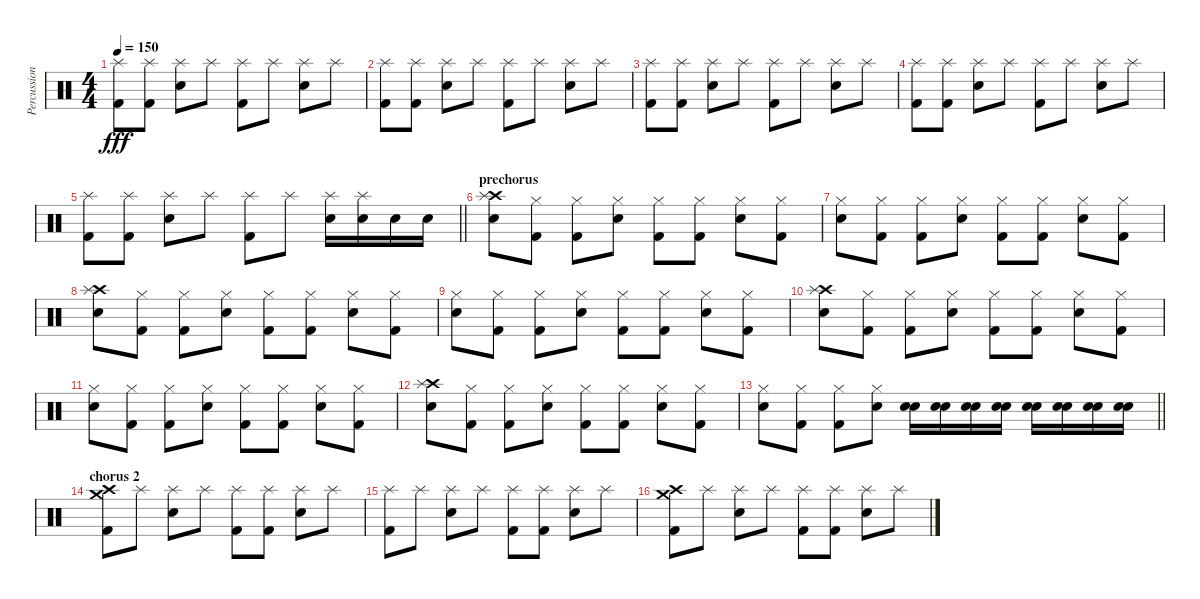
\track ("Percussion" "Percussion") {instrument percussion}
\staff {score}
\articulation defaults
\ts (4 4)
\tempo 150
\clef neutral
\ks c
("Splash (hit)" "Kick (hit) 2").8{dy fff} ("Splash (hit)" "Kick (hit) 2").8 ("Splash (hit)" "Electric Snare (hit)").8 "Splash (hit)".8 ("Splash (hit)" "Kick (hit) 2").8 "Splash (hit)".8 ("Splash (hit)" "Electric Snare (hit)").8 "Splash (hit)".8 |
("Splash (hit)" "Kick (hit) 2").8 ("Splash (hit)" "Kick (hit) 2").8 ("Splash (hit)" "Electric Snare (hit)").8 "Splash (hit)".8 ("Splash (hit)" "Kick (hit) 2").8 "Splash (hit)".8 ("Splash (hit)" "Electric Snare (hit)").8 "Splash (hit)".8 |
("Splash (hit)" "Kick (hit) 2").8 ("Splash (hit)" "Kick (hit) 2").8 ("Splash (hit)" "Electric Snare (hit)").8 "Splash (hit)".8 ("Splash (hit)" "Kick (hit) 2").8 "Splash (hit)".8 ("Splash (hit)" "Electric Snare (hit)").8 "Splash (hit)".8 |
("Splash (hit)" "Kick (hit) 2").8 ("Splash (hit)" "Kick (hit) 2").8 ("Splash (hit)" "Electric Snare (hit)").8 "Splash (hit)".8 ("Splash (hit)" "Kick (hit) 2").8 "Splash (hit)".8 ("Splash (hit)" "Electric Snare (hit)").8 "Splash (hit)".8 |
\barLineRight lightlight
("Splash (hit)" "Kick (hit) 2").8 ("Splash (hit)" "Kick (hit) 2").8 ("Splash (hit)" "Electric Snare (hit)").8 "Splash (hit)".8 ("Splash (hit)" "Kick (hit) 2").8 "Splash (hit)".8 ("Splash (hit)" "Electric Snare (hit)").16 ("Splash (hit)" "Electric Snare (hit)").16 "Electric Snare (hit)".16 "Electric Snare (hit)".16 |
\section ("" "prechorus")
("Crash high (hit)" "Electric Snare (hit)" "Splash (hit)").8 ("Hi-Hat (closed)" "Kick (hit) 2").8 ("Hi-Hat (closed)" "Kick (hit) 2").8 ("Hi-Hat (closed)" "Electric Snare (hit)").8 ("Hi-Hat (closed)" "Kick (hit) 2").8 ("Hi-Hat (closed)" "Kick (hit) 2").8 ("Hi-Hat (closed)" "Electric Snare (hit)").8 ("Hi-Hat (closed)" "Kick (hit) 2").8 |
("Hi-Hat (closed)" "Electric Snare (hit)").8 ("Hi-Hat (closed)" "Kick (hit) 2").8 ("Hi-Hat (closed)" "Kick (hit) 2").8 ("Hi-Hat (closed)" "Electric Snare (hit)").8 ("Hi-Hat (closed)" "Kick (hit) 2").8 ("Hi-Hat (closed)" "Kick (hit) 2").8 ("Hi-Hat (closed)" "Electric Snare (hit)").8 ("Hi-Hat (closed)" "Kick (hit) 2").8 |
("Crash high (hit)" "Electric Snare (hit)" "Splash (hit)").8 ("Hi-Hat (closed)" "Kick (hit) 2").8 ("Hi-Hat (closed)" "Kick (hit) 2").8 ("Hi-Hat (closed)" "Electric Snare (hit)").8 ("Hi-Hat (closed)" "Kick (hit) 2").8 ("Hi-Hat (closed)" "Kick (hit) 2").8 ("Hi-Hat (closed)" "Electric Snare (hit)").8 ("Hi-Hat (closed)" "Kick (hit) 2").8 |
("Hi-Hat (closed)" "Electric Snare (hit)").8 ("Hi-Hat (closed)" "Kick (hit) 2").8 ("Hi-Hat (closed)" "Kick (hit) 2").8 ("Hi-Hat (closed)" "Electric Snare (hit)").8 ("Hi-Hat (closed)" "Kick (hit) 2").8 ("Hi-Hat (closed)" "Kick (hit) 2").8 ("Hi-Hat (closed)" "Electric Snare (hit)").8 ("Hi-Hat (closed)" "Kick (hit) 2").8 |
("Crash high (hit)" "Electric Snare (hit)" "Splash (hit)").8 ("Hi-Hat (closed)" "Kick (hit) 2").8 ("Hi-Hat (closed)" "Kick (hit) 2").8 ("Hi-Hat (closed)" "Electric Snare (hit)").8 ("Hi-Hat (closed)" "Kick (hit) 2").8 ("Hi-Hat (closed)" "Kick (hit) 2").8 ("Hi-Hat (closed)" "Electric Snare (hit)").8 ("Hi-Hat (closed)" "Kick (hit) 2").8 |
("Hi-Hat (closed)" "Electric Snare (hit)").8 ("Hi-Hat (closed)" "Kick (hit) 2").8 ("Hi-Hat (closed)" "Kick (hit) 2").8 ("Hi-Hat (closed)" "Electric Snare (hit)").8 ("Hi-Hat (closed)" "Kick (hit) 2").8 ("Hi-Hat (closed)" "Kick (hit) 2").8 ("Hi-Hat (closed)" "Electric Snare (hit)").8 ("Hi-Hat (closed)" "Kick (hit) 2").8 |
("Crash high (hit)" "Electric Snare (hit)" "Splash (hit)").8 ("Hi-Hat (closed)" "Kick (hit) 2").8 ("Hi-Hat (closed)" "Kick (hit) 2").8 ("Hi-Hat (closed)" "Electric Snare (hit)").8 ("Hi-Hat (closed)" "Kick (hit) 2").8 ("Hi-Hat (closed)" "Kick (hit) 2").8 ("Hi-Hat (closed)" "Electric Snare (hit)").8 ("Hi-Hat (closed)" "Kick (hit) 2").8 |
\barLineRight lightlight
("Hi-Hat (closed)" "Electric Snare (hit)").8 ("Hi-Hat (closed)" "Kick (hit) 2").8 ("Hi-Hat (closed)" "Kick (hit) 2").8 ("Hi-Hat (closed)" "Electric Snare (hit)").8 ("Electric Snare (hit)" "Electric Snare (hit)").16 ("Electric Snare (hit)" "Electric Snare (hit)").16 ("Electric Snare (hit)" "Electric Snare (hit)").16 ("Electric Snare (hit)" "Electric Snare (hit)").16 ("Electric Snare (hit)" "Electric Snare (hit)").16 ("Electric Snare (hit)" "Electric Snare (hit)").16 ("Electric Snare (hit)" "Electric Snare (hit)").16 ("Electric Snare (hit)" "Electric Snare (hit)").16 |
\section ("" "chorus 2")
("Crash high (hit)" "Kick (hit) 2" "Crash medium (hit)").8 "Splash (hit)".8 ("Splash (hit)" "Electric Snare (hit)").8 "Splash (hit)".8 ("Splash (hit)" "Kick (hit) 2").8 ("Splash (hit)" "Kick (hit) 2").8 ("Splash (hit)" "Electric Snare (hit)").8 "Splash (hit)".8 |
("Splash (hit)" "Kick (hit) 2").8 "Splash (hit)".8 ("Splash (hit)" "Electric Snare (hit)").8 "Splash (hit)".8 ("Splash (hit)" "Kick (hit) 2").8 ("Splash (hit)" "Kick (hit) 2").8 ("Splash (hit)" "Electric Snare (hit)").8 "Splash (hit)".8 |
("Crash high (hit)" "Kick (hit) 2" "Crash medium (hit)").8 "Splash (hit)".8 ("Splash (hit)" "Electric Snare (hit)").8 "Splash (hit)".8 ("Splash (hit)" "Kick (hit) 2").8 ("Splash (hit)" "Kick (hit) 2").8 ("Splash (hit)" "Electric Snare (hit)").8 "Splash (hit)".8
